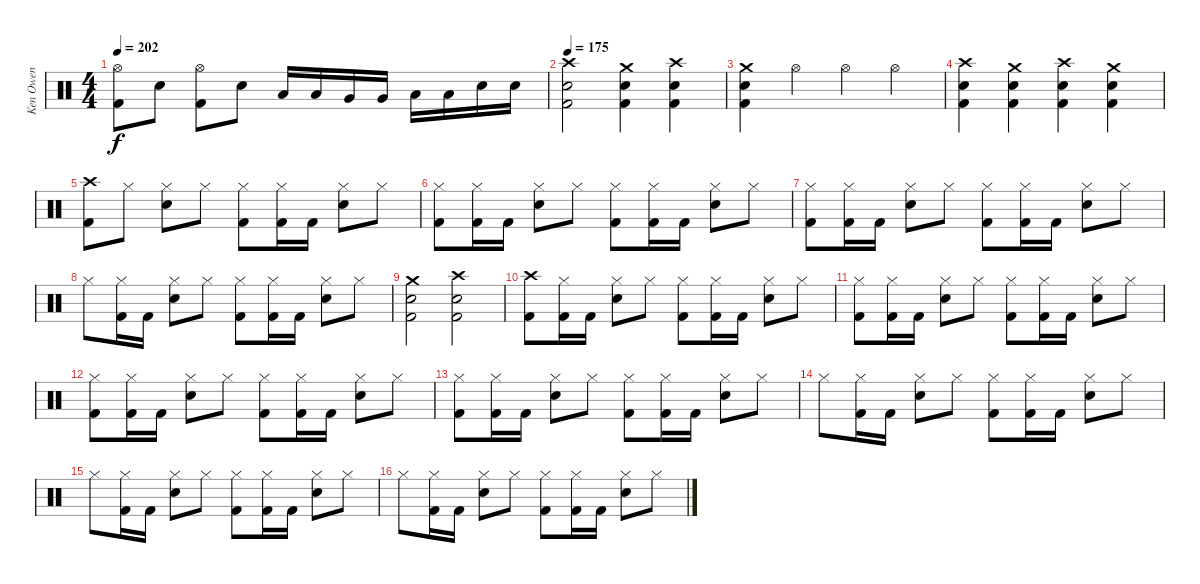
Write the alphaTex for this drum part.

\track ("Ken Owen" "Ken Owen") {instrument percussion}
\staff {score}
\articulation defaults
\ts (4 4)
\tempo 202
\clef neutral
\ks c
("Hi-Hat (open)" "Kick (hit) 2").8{dy f} "Snare (hit) 2".8 ("Hi-Hat (open)" "Kick (hit) 2").8 "Snare (hit) 2".8 "Low Tom (hit)".16 "Low Tom (hit)".16 "Very Low Tom (hit)".16 "Very Low Tom (hit)".16 "Low Floor Tom (hit)".16 "Low Floor Tom (hit)".16 "Snare (hit) 2".16 "Snare (hit) 2".16 |
\tempo 175
("Crash high (hit)" "Snare (hit) 2" "Kick (hit) 2").2 ("Crash medium (hit)" "Snare (hit) 2" "Kick (hit) 2").4 ("Crash high (hit)" "Snare (hit) 2" "Kick (hit) 2").4 |
("Crash medium (hit)" "Snare (hit) 2" "Kick (hit) 2").4 "Hi-Hat (open)".4 "Hi-Hat (open)".4 "Hi-Hat (open)".4 |
("Crash high (hit)" "Snare (hit) 2" "Kick (hit) 2").4 ("Crash medium (hit)" "Snare (hit) 2" "Kick (hit) 2").4 ("Crash high (hit)" "Snare (hit) 2" "Kick (hit) 2").4 ("Crash medium (hit)" "Snare (hit) 2" "Kick (hit) 2").4 |
("Crash high (hit)" "Kick (hit) 2").8 "Hi-Hat (closed)".8 ("Hi-Hat (closed)" "Snare (hit) 2").8 "Hi-Hat (closed)".8 ("Hi-Hat (closed)" "Kick (hit) 2").8 ("Hi-Hat (closed)" "Kick (hit) 2").16 "Kick (hit) 2".16 ("Hi-Hat (closed)" "Snare (hit) 2").8 "Hi-Hat (closed)".8 |
("Hi-Hat (closed)" "Kick (hit) 2").8 ("Hi-Hat (closed)" "Kick (hit) 2").16 "Kick (hit) 2".16 ("Hi-Hat (closed)" "Snare (hit) 2").8 "Hi-Hat (closed)".8 ("Hi-Hat (closed)" "Kick (hit) 2").8 ("Hi-Hat (closed)" "Kick (hit) 2").16 "Kick (hit) 2".16 ("Hi-Hat (closed)" "Snare (hit) 2").8 "Hi-Hat (closed)".8 |
("Hi-Hat (closed)" "Kick (hit) 2").8 ("Hi-Hat (closed)" "Kick (hit) 2").16 "Kick (hit) 2".16 ("Hi-Hat (closed)" "Snare (hit) 2").8 "Hi-Hat (closed)".8 ("Hi-Hat (closed)" "Kick (hit) 2").8 ("Hi-Hat (closed)" "Kick (hit) 2").16 "Kick (hit) 2".16 ("Hi-Hat (closed)" "Snare (hit) 2").8 "Hi-Hat (closed)".8 |
"Hi-Hat (closed)".8 ("Hi-Hat (closed)" "Kick (hit) 2").16 "Kick (hit) 2".16 ("Hi-Hat (closed)" "Snare (hit) 2").8 "Hi-Hat (closed)".8 ("Hi-Hat (closed)" "Kick (hit) 2").8 ("Hi-Hat (closed)" "Kick (hit) 2").16 "Kick (hit) 2".16 ("Hi-Hat (closed)" "Snare (hit) 2").8 "Hi-Hat (closed)".8 |
("Crash medium (hit)" "Snare (hit) 2" "Kick (hit) 2").2 ("Crash high (hit)" "Snare (hit) 2" "Kick (hit) 2").2 |
("Crash high (hit)" "Kick (hit) 2").8 ("Hi-Hat (closed)" "Kick (hit) 2").16 "Kick (hit) 2".16 ("Hi-Hat (closed)" "Snare (hit) 2").8 "Hi-Hat (closed)".8 ("Hi-Hat (closed)" "Kick (hit) 2").8 ("Hi-Hat (closed)" "Kick (hit) 2").16 "Kick (hit) 2".16 ("Hi-Hat (closed)" "Snare (hit) 2").8 "Hi-Hat (closed)".8 |
("Hi-Hat (closed)" "Kick (hit) 2").8 ("Hi-Hat (closed)" "Kick (hit) 2").16 "Kick (hit) 2".16 ("Hi-Hat (closed)" "Snare (hit) 2").8 "Hi-Hat (closed)".8 ("Hi-Hat (closed)" "Kick (hit) 2").8 ("Hi-Hat (closed)" "Kick (hit) 2").16 "Kick (hit) 2".16 ("Hi-Hat (closed)" "Snare (hit) 2").8 "Hi-Hat (closed)".8 |
("Hi-Hat (closed)" "Kick (hit) 2").8 ("Hi-Hat (closed)" "Kick (hit) 2").16 "Kick (hit) 2".16 ("Hi-Hat (closed)" "Snare (hit) 2").8 "Hi-Hat (closed)".8 ("Hi-Hat (closed)" "Kick (hit) 2").8 ("Hi-Hat (closed)" "Kick (hit) 2").16 "Kick (hit) 2".16 ("Hi-Hat (closed)" "Snare (hit) 2").8 "Hi-Hat (closed)".8 |
("Hi-Hat (closed)" "Kick (hit) 2").8 ("Hi-Hat (closed)" "Kick (hit) 2").16 "Kick (hit) 2".16 ("Hi-Hat (closed)" "Snare (hit) 2").8 "Hi-Hat (closed)".8 ("Hi-Hat (closed)" "Kick (hit) 2").8 ("Hi-Hat (closed)" "Kick (hit) 2").16 "Kick (hit) 2".16 ("Hi-Hat (closed)" "Snare (hit) 2").8 "Hi-Hat (closed)".8 |
"Hi-Hat (closed)".8 ("Hi-Hat (closed)" "Kick (hit) 2").16 "Kick (hit) 2".16 ("Hi-Hat (closed)" "Snare (hit) 2").8 "Hi-Hat (closed)".8 ("Hi-Hat (closed)" "Kick (hit) 2").8 ("Hi-Hat (closed)" "Kick (hit) 2").16 "Kick (hit) 2".16 ("Hi-Hat (closed)" "Snare (hit) 2").8 "Hi-Hat (closed)".8 |
"Hi-Hat (closed)".8 ("Hi-Hat (closed)" "Kick (hit) 2").16 "Kick (hit) 2".16 ("Hi-Hat (closed)" "Snare (hit) 2").8 "Hi-Hat (closed)".8 ("Hi-Hat (closed)" "Kick (hit) 2").8 ("Hi-Hat (closed)" "Kick (hit) 2").16 "Kick (hit) 2".16 ("Hi-Hat (closed)" "Snare (hit) 2").8 "Hi-Hat (closed)".8 |
"Hi-Hat (closed)".8 ("Hi-Hat (closed)" "Kick (hit) 2").16 "Kick (hit) 2".16 ("Hi-Hat (closed)" "Snare (hit) 2").8 "Hi-Hat (closed)".8 ("Hi-Hat (closed)" "Kick (hit) 2").8 ("Hi-Hat (closed)" "Kick (hit) 2").16 "Kick (hit) 2".16 ("Hi-Hat (closed)" "Snare (hit) 2").8 "Hi-Hat (closed)".8
